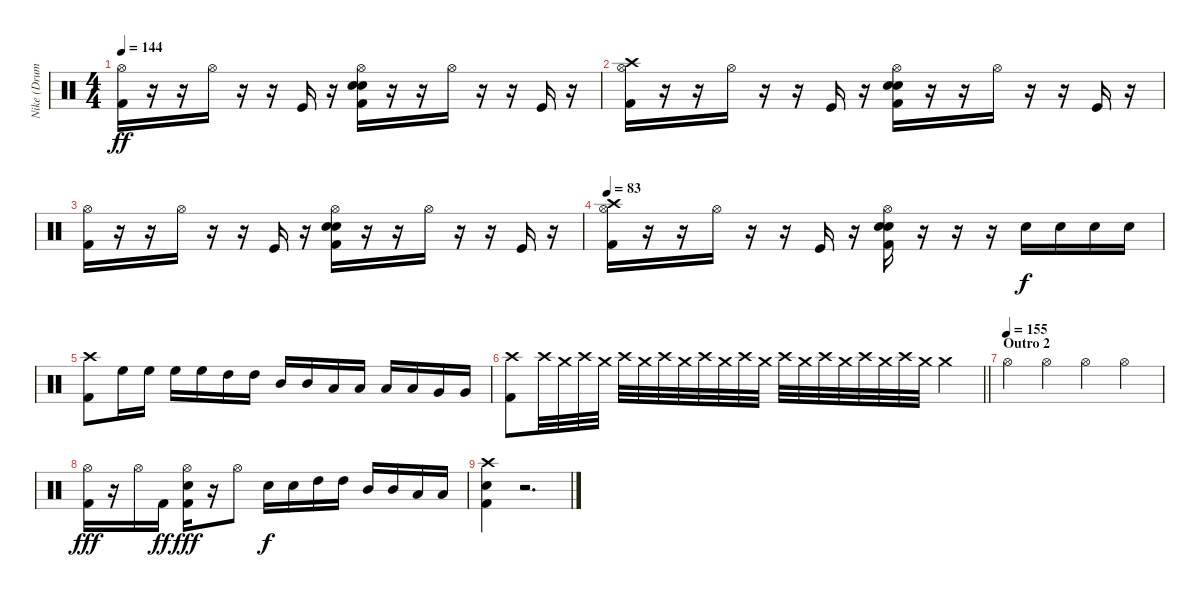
\track ("Nike (Drums)" "Nike (Drum") {instrument percussion}
\staff {score}
\articulation defaults
\ts (4 4)
\tempo 144
\clef neutral
\ks c
("Hi-Hat (open)" "Kick (hit) 2").16{dy ff} r.16 r.16 "Hi-Hat (open)".16 r.16 r.16 "Kick (hit)".16 r.16 ("Hi-Hat (open)" "Electric Snare (hit)" "Electric Snare (hit)" "Kick (hit) 2").16 r.16 r.16 "Hi-Hat (open)".16 r.16 r.16 "Kick (hit)".16 r.16 |
("Hi-Hat (open)" "Crash high (hit)" "Kick (hit) 2").16 r.16 r.16 "Hi-Hat (open)".16 r.16 r.16 "Kick (hit)".16 r.16 ("Hi-Hat (open)" "Electric Snare (hit)" "Electric Snare (hit)" "Kick (hit) 2").16 r.16 r.16 "Hi-Hat (open)".16 r.16 r.16 "Kick (hit)".16 r.16 |
("Hi-Hat (open)" "Kick (hit) 2").16 r.16 r.16 "Hi-Hat (open)".16 r.16 r.16 "Kick (hit)".16 r.16 ("Hi-Hat (open)" "Electric Snare (hit)" "Electric Snare (hit)" "Kick (hit) 2").16 r.16 r.16 "Hi-Hat (open)".16 r.16 r.16 "Kick (hit)".16 r.16 |
\tempo 83
("Hi-Hat (open)" "Crash high (hit)" "Kick (hit) 2").16 r.16 r.16 "Hi-Hat (open)".16 r.16 r.16 "Kick (hit)".16 r.16 ("Hi-Hat (open)" "Electric Snare (hit)" "Electric Snare (hit)" "Kick (hit) 2").16 r.16 r.16 r.16 "Electric Snare (hit)".16{dy f} "Electric Snare (hit)".16 "Electric Snare (hit)".16 "Electric Snare (hit)".16 |
("Kick (hit) 2" "Crash high (hit)").8 "High Floor Tom (hit)".16 "High Floor Tom (hit)".16 "High Floor Tom (hit)".16 "High Floor Tom (hit)".16 "High Tom (hit)".16 "High Tom (hit)".16 "Mid Tom (hit)".16 "Mid Tom (hit)".16 "Low Tom (hit)".16 "Low Tom (hit)".16 "Low Tom (hit)".16 "Low Tom (hit)".16 "Very Low Tom (hit)".16 "Very Low Tom (hit)".16 |
\barLineRight lightlight
("Crash high (hit)" "Kick (hit) 2").8 "Crash high (hit)".32 "Crash medium (hit)".32 "Crash high (hit)".32 "Crash medium (hit)".32 "Crash high (hit)".32 "Crash medium (hit)".32 "Crash high (hit)".32 "Crash medium (hit)".32 "Crash high (hit)".32 "Crash medium (hit)".32 "Crash high (hit)".32 "Crash medium (hit)".32 "Crash high (hit)".32 "Crash medium (hit)".32 "Crash high (hit)".32 "Crash medium (hit)".32 "Crash high (hit)".32 "Crash medium (hit)".32 "Crash high (hit)".32 "Crash medium (hit)".32 "Crash medium (hit)".4 |
\section ("" "Outro 2")
\tempo (155)
"Hi-Hat (open)".4 "Hi-Hat (open)".4 "Hi-Hat (open)".4 "Hi-Hat (open)".4 |
("Kick (hit) 2" "Hi-Hat (open)").16{dy fff} r.16 "Hi-Hat (open)".16 "Kick (hit) 2".16{dy ff} ("Kick (hit) 2" "Electric Snare (hit)" "Hi-Hat (open)").16{dy fff} r.16 "Hi-Hat (open)".8 "Electric Snare (hit)".16{dy f} "Electric Snare (hit)".16 "High Tom (hit)".16 "High Tom (hit)".16 "Mid Tom (hit)".16 "Mid Tom (hit)".16 "Low Tom (hit)".16 "Low Tom (hit)".16 |
("Crash high (hit)" "Electric Snare (hit)" "Kick (hit) 2").4 r.2{d}
